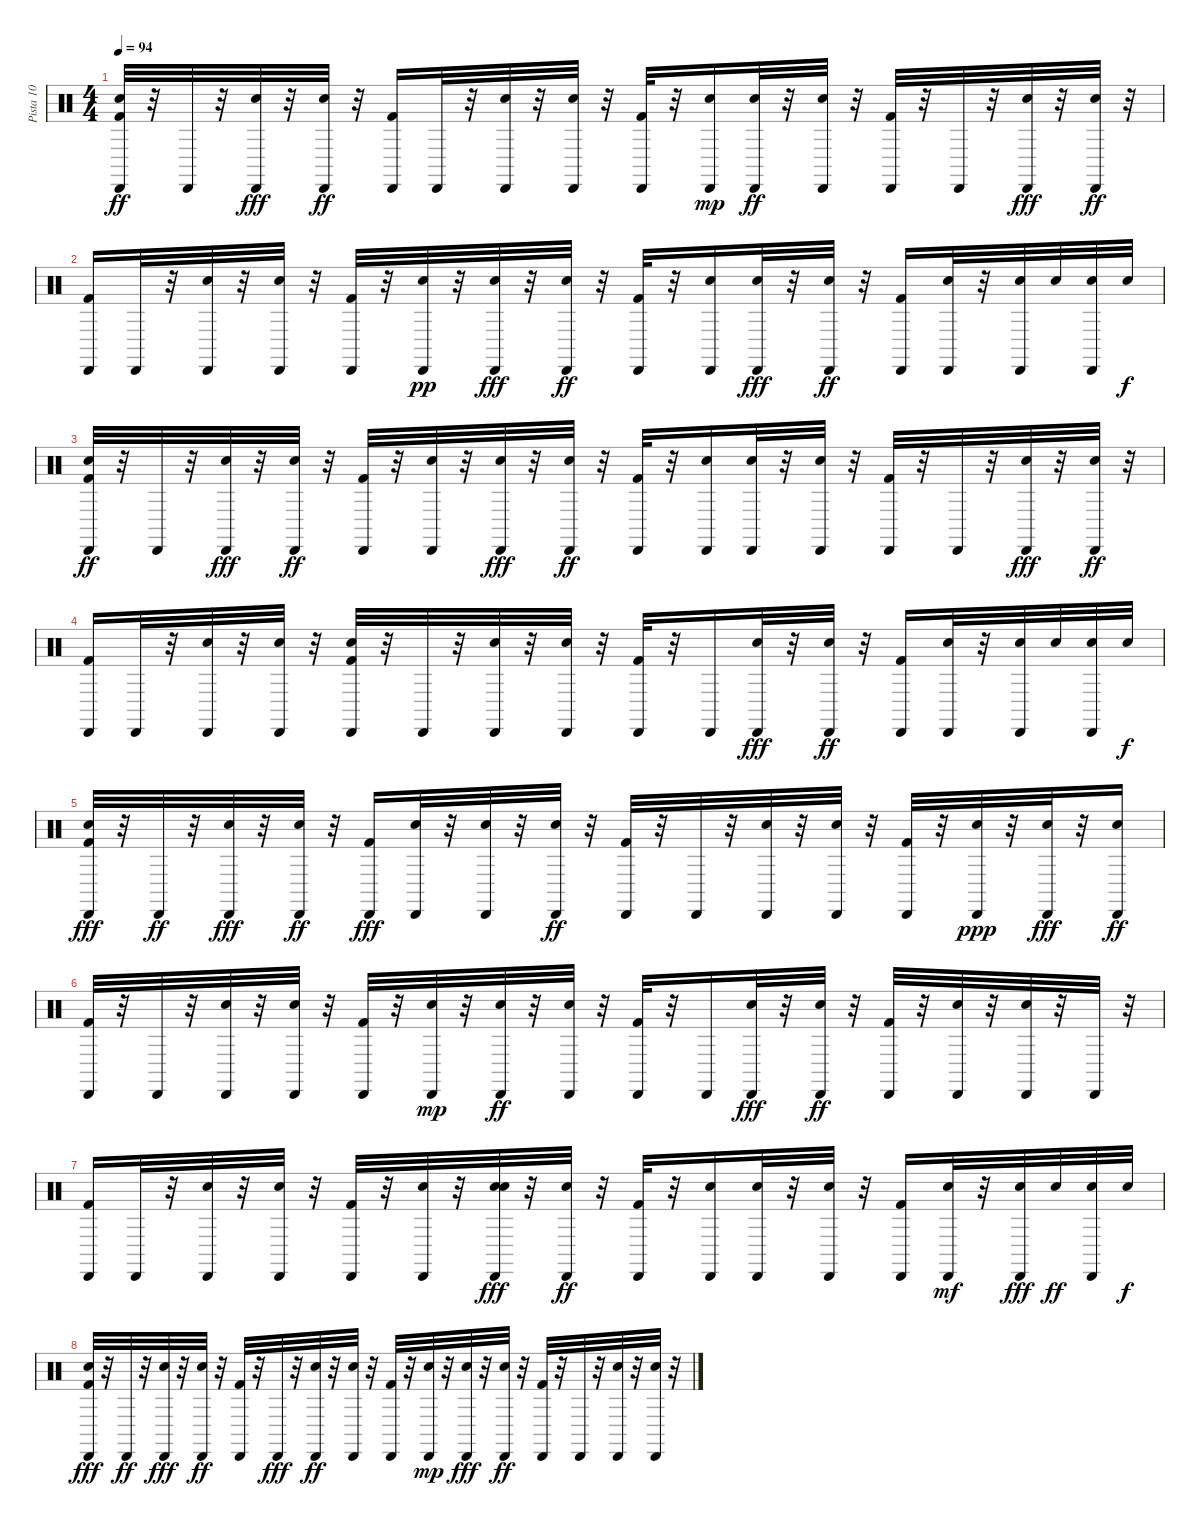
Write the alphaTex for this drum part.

\track ("Pista 10" "Pista 10") {instrument percussion}
\staff {score}
\articulation defaults
\ts (4 4)
\tempo 94
\clef neutral
\ks c
("Kick (hit) 2" "Snare (hit) 2" "Cabasa (hit)").32{dy ff} r.32 "Cabasa (hit)".32 r.32 ("Cabasa (hit)" "Snare (hit) 2").32{dy fff} r.32 ("Cabasa (hit)" "Electric Snare (hit)").32{dy ff} r.32 ("Kick (hit) 2" "Cabasa (hit)").16 "Cabasa (hit)".32 r.32 ("Snare (hit) 2" "Cabasa (hit)").32 r.32 ("Cabasa (hit)" "Electric Snare (hit)").32 r.32 ("Cabasa (hit)" "Kick (hit) 2").32 r.32 ("Cabasa (hit)" "Electric Snare (hit)").16{dy mp} ("Snare (hit) 2" "Cabasa (hit)").32{dy ff} r.32 ("Electric Snare (hit)" "Cabasa (hit)").32 r.32 ("Kick (hit) 2" "Cabasa (hit)").32 r.32 "Cabasa (hit)".32 r.32 ("Cabasa (hit)" "Snare (hit) 2").32{dy fff} r.32 ("Cabasa (hit)" "Electric Snare (hit)").32{dy ff} r.32 |
("Kick (hit) 2" "Cabasa (hit)").16 "Cabasa (hit)".32 r.32 ("Snare (hit) 2" "Cabasa (hit)").32 r.32 ("Cabasa (hit)" "Electric Snare (hit)").32 r.32 ("Cabasa (hit)" "Kick (hit) 2").32 r.32 ("Cabasa (hit)" "Electric Snare (hit)").32{dy pp} r.32 ("Cabasa (hit)" "Snare (hit) 2").32{dy fff} r.32 ("Electric Snare (hit)" "Cabasa (hit)").32{dy ff} r.32 ("Kick (hit) 2" "Cabasa (hit)").32 r.32 ("Electric Snare (hit)" "Cabasa (hit)").16 ("Cabasa (hit)" "Snare (hit) 2").32{dy fff} r.32 ("Cabasa (hit)" "Electric Snare (hit)").32{dy ff} r.32 ("Cabasa (hit)" "Kick (hit) 2").16 ("Electric Snare (hit)" "Cabasa (hit)").32 r.32 ("Snare (hit) 2" "Cabasa (hit)").32 "Electric Snare (hit)".32 ("Snare (hit) 2" "Cabasa (hit)").32 "Electric Snare (hit)".32{dy f} |
("Cabasa (hit)" "Snare (hit) 2" "Kick (hit) 2").32{dy ff} r.32 "Cabasa (hit)".32 r.32 ("Cabasa (hit)" "Snare (hit) 2").32{dy fff} r.32 ("Electric Snare (hit)" "Cabasa (hit)").32{dy ff} r.32 ("Kick (hit) 2" "Cabasa (hit)").32 r.32 ("Electric Snare (hit)" "Cabasa (hit)").32 r.32 ("Cabasa (hit)" "Snare (hit) 2").32{dy fff} r.32 ("Cabasa (hit)" "Electric Snare (hit)").32{dy ff} r.32 ("Cabasa (hit)" "Kick (hit) 2").32 r.32 ("Cabasa (hit)" "Electric Snare (hit)").16 ("Snare (hit) 2" "Cabasa (hit)").32 r.32 ("Electric Snare (hit)" "Cabasa (hit)").32 r.32 ("Kick (hit) 2" "Cabasa (hit)").32 r.32 "Cabasa (hit)".32 r.32 ("Cabasa (hit)" "Snare (hit) 2").32{dy fff} r.32 ("Cabasa (hit)" "Electric Snare (hit)").32{dy ff} r.32 |
("Kick (hit) 2" "Cabasa (hit)").16 "Cabasa (hit)".32 r.32 ("Snare (hit) 2" "Cabasa (hit)").32 r.32 ("Cabasa (hit)" "Electric Snare (hit)").32 r.32 ("Cabasa (hit)" "Snare (hit) 2" "Kick (hit) 2").32 r.32 "Cabasa (hit)".32 r.32 ("Snare (hit) 2" "Cabasa (hit)").32 r.32 ("Electric Snare (hit)" "Cabasa (hit)").32 r.32 ("Kick (hit) 2" "Cabasa (hit)").32 r.32 "Cabasa (hit)".16 ("Cabasa (hit)" "Snare (hit) 2").32{dy fff} r.32 ("Cabasa (hit)" "Electric Snare (hit)").32{dy ff} r.32 ("Kick (hit) 2" "Cabasa (hit)").16 ("Electric Snare (hit)" "Cabasa (hit)").32 r.32 ("Snare (hit) 2" "Cabasa (hit)").32 "Electric Snare (hit)".32 ("Snare (hit) 2" "Cabasa (hit)").32 "Electric Snare (hit)".32{dy f} |
("Cabasa (hit)" "Snare (hit) 2" "Kick (hit) 2").32{dy fff} r.32 "Cabasa (hit)".32{dy ff} r.32 ("Cabasa (hit)" "Snare (hit) 2").32{dy fff} r.32 ("Electric Snare (hit)" "Cabasa (hit)").32{dy ff} r.32 ("Kick (hit) 2" "Cabasa (hit)").16{dy fff} ("Electric Snare (hit)" "Cabasa (hit)").32 r.32 ("Cabasa (hit)" "Snare (hit) 2").32 r.32 ("Cabasa (hit)" "Electric Snare (hit)").32{dy ff} r.32 ("Cabasa (hit)" "Kick (hit) 2").32 r.32 "Cabasa (hit)".32 r.32 ("Snare (hit) 2" "Cabasa (hit)").32 r.32 ("Electric Snare (hit)" "Cabasa (hit)").32 r.32 ("Cabasa (hit)" "Kick (hit) 2").32 r.32 ("Cabasa (hit)" "Electric Snare (hit)").32{dy ppp} r.32 ("Cabasa (hit)" "Snare (hit) 2").32{dy fff} r.32 ("Electric Snare (hit)" "Cabasa (hit)").16{dy ff} |
("Kick (hit) 2" "Cabasa (hit)").32 r.32 "Cabasa (hit)".32 r.32 ("Snare (hit) 2" "Cabasa (hit)").32 r.32 ("Cabasa (hit)" "Electric Snare (hit)").32 r.32 ("Cabasa (hit)" "Kick (hit) 2").32 r.32 ("Cabasa (hit)" "Electric Snare (hit)").32{dy mp} r.32 ("Snare (hit) 2" "Cabasa (hit)").32{dy ff} r.32 ("Electric Snare (hit)" "Cabasa (hit)").32 r.32 ("Kick (hit) 2" "Cabasa (hit)").32 r.32 "Cabasa (hit)".16 ("Cabasa (hit)" "Snare (hit) 2").32{dy fff} r.32 ("Cabasa (hit)" "Electric Snare (hit)").32{dy ff} r.32 ("Kick (hit) 2" "Cabasa (hit)").32 r.32 ("Electric Snare (hit)" "Cabasa (hit)").32 r.32 ("Snare (hit) 2" "Cabasa (hit)").32 r.32 "Cabasa (hit)".32 r.32 |
("Cabasa (hit)" "Kick (hit) 2").16 "Cabasa (hit)".32 r.32 ("Snare (hit) 2" "Cabasa (hit)").32 r.32 ("Electric Snare (hit)" "Cabasa (hit)").32 r.32 ("Kick (hit) 2" "Cabasa (hit)").32 r.32 ("Electric Snare (hit)" "Cabasa (hit)").32 r.32 ("Cabasa (hit)" "Electric Snare (hit)" "Snare (hit) 2").32{dy fff} r.32 ("Cabasa (hit)" "Electric Snare (hit)").32{dy ff} r.32 ("Cabasa (hit)" "Kick (hit) 2").32 r.32 ("Electric Snare (hit)" "Cabasa (hit)").16 ("Snare (hit) 2" "Cabasa (hit)").32 r.32 ("Electric Snare (hit)" "Cabasa (hit)").32 r.32 ("Cabasa (hit)" "Kick (hit) 2").16 ("Cabasa (hit)" "Electric Snare (hit)").32{dy mf} r.32 ("Cabasa (hit)" "Snare (hit) 2").32{dy fff} "Electric Snare (hit)".32{dy ff} ("Snare (hit) 2" "Cabasa (hit)").32 "Electric Snare (hit)".32{dy f} |
("Kick (hit) 2" "Snare (hit) 2" "Cabasa (hit)").32{dy fff} r.32 "Cabasa (hit)".32{dy ff} r.32 ("Cabasa (hit)" "Snare (hit) 2").32{dy fff} r.32 ("Cabasa (hit)" "Electric Snare (hit)").32{dy ff} r.32 ("Cabasa (hit)" "Kick (hit) 2").32 r.32 "Cabasa (hit)".32{dy fff} r.32 ("Snare (hit) 2" "Cabasa (hit)").32{dy ff} r.32 ("Electric Snare (hit)" "Cabasa (hit)").32 r.32 ("Cabasa (hit)" "Kick (hit) 2").32 r.32 ("Cabasa (hit)" "Electric Snare (hit)").32{dy mp} r.32 ("Cabasa (hit)" "Snare (hit) 2").32{dy fff} r.32 ("Cabasa (hit)" "Electric Snare (hit)").32{dy ff} r.32 ("Kick (hit) 2" "Cabasa (hit)").32 r.32 "Cabasa (hit)".32 r.32 ("Snare (hit) 2" "Cabasa (hit)").32 r.32 ("Cabasa (hit)" "Electric Snare (hit)").32 r.32
